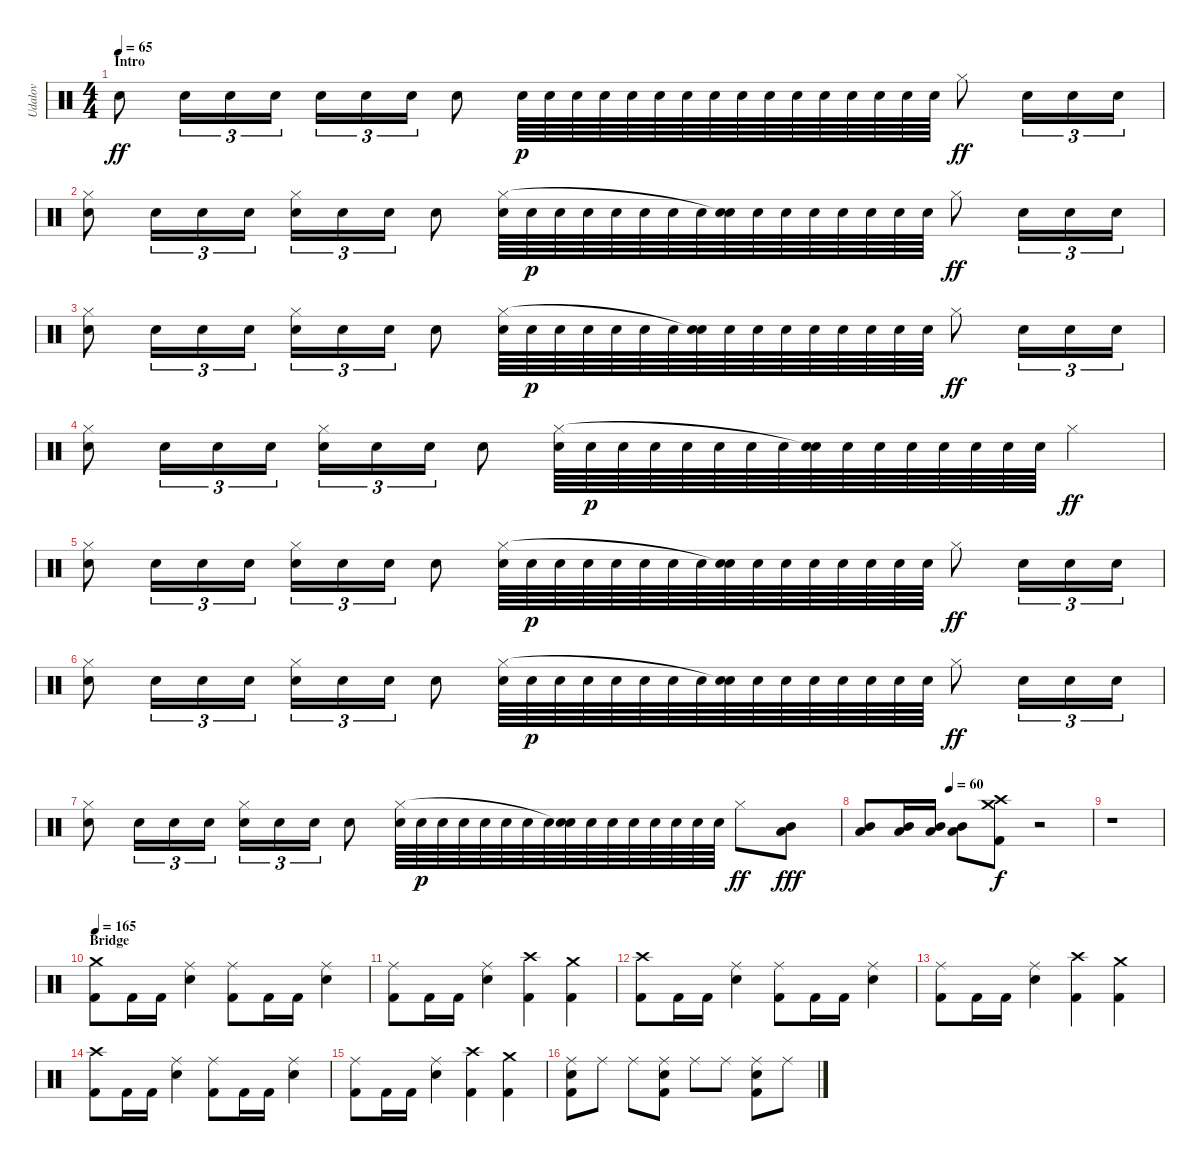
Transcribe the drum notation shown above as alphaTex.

\track ("Udalov" "Udalov") {instrument percussion}
\staff {score}
\articulation defaults
\ts (4 4)
\section ("" "Intro")
\tempo 65
\clef neutral
\ks c "Electric Snare (hit)".8{dy ff} "Electric Snare (hit)".16{tu (3 2)} "Electric Snare (hit)".16{tu (3 2)} "Electric Snare (hit)".16{tu (3 2)} "Electric Snare (hit)".16{tu (3 2)} "Electric Snare (hit)".16{tu (3 2)} "Electric Snare (hit)".16{tu (3 2)} "Electric Snare (hit)".8 "Electric Snare (hit)".64{dy p} "Electric Snare (hit)".64 "Electric Snare (hit)".64 "Electric Snare (hit)".64 "Electric Snare (hit)".64 "Electric Snare (hit)".64 "Electric Snare (hit)".64 "Electric Snare (hit)".64 "Electric Snare (hit)".64 "Electric Snare (hit)".64 "Electric Snare (hit)".64 "Electric Snare (hit)".64 "Electric Snare (hit)".64 "Electric Snare (hit)".64 "Electric Snare (hit)".64 "Electric Snare (hit)".64 "Hi-Hat (closed)".8{dy ff} "Electric Snare (hit)".16{tu (3 2)} "Electric Snare (hit)".16{tu (3 2)} "Electric Snare (hit)".16{tu (3 2)}
|
("Electric Snare (hit)" "Hi-Hat (closed)").8 "Electric Snare (hit)".16{tu (3 2)} "Electric Snare (hit)".16{tu (3 2)} "Electric Snare (hit)".16{tu (3 2)} ("Electric Snare (hit)" "Hi-Hat (closed)").16{tu (3 2)} "Electric Snare (hit)".16{tu (3 2)} "Electric Snare (hit)".16{tu (3 2)} "Electric Snare (hit)".8 ("Electric Snare (hit)" "Hi-Hat (closed)").64 "Electric Snare (hit)".64{dy p} "Electric Snare (hit)".64 "Electric Snare (hit)".64 "Electric Snare (hit)".64 "Electric Snare (hit)".64 "Electric Snare (hit)".64 "Electric Snare (hit)".64 ("Electric Snare (hit)" "Snare (hit)"{t}).64 "Electric Snare (hit)".64 "Electric Snare (hit)".64 "Electric Snare (hit)".64 "Electric Snare (hit)".64 "Electric Snare (hit)".64 "Electric Snare (hit)".64 "Electric Snare (hit)".64 "Hi-Hat (closed)".8{dy ff} "Electric Snare (hit)".16{tu (3 2)} "Electric Snare (hit)".16{tu (3 2)} "Electric Snare (hit)".16{tu (3 2)} |
("Electric Snare (hit)" "Hi-Hat (closed)").8 "Electric Snare (hit)".16{tu (3 2)} "Electric Snare (hit)".16{tu (3 2)} "Electric Snare (hit)".16{tu (3 2)} ("Electric Snare (hit)" "Hi-Hat (closed)").16{tu (3 2)} "Electric Snare (hit)".16{tu (3 2)} "Electric Snare (hit)".16{tu (3 2)} "Electric Snare (hit)".8 ("Electric Snare (hit)" "Hi-Hat (closed)").64 "Electric Snare (hit)".64{dy p} "Electric Snare (hit)".64 "Electric Snare (hit)".64 "Electric Snare (hit)".64 "Electric Snare (hit)".64 "Electric Snare (hit)".64 ("Electric Snare (hit)" "Snare (hit)"{t}).64 "Electric Snare (hit)".64 "Electric Snare (hit)".64 "Electric Snare (hit)".64 "Electric Snare (hit)".64 "Electric Snare (hit)".64 "Electric Snare (hit)".64 "Electric Snare (hit)".64 "Electric Snare (hit)".64 "Hi-Hat (closed)".8{dy ff} "Electric Snare (hit)".16{tu (3 2)} "Electric Snare (hit)".16{tu (3 2)} "Electric Snare (hit)".16{tu (3 2)} |
("Electric Snare (hit)" "Hi-Hat (closed)").8 "Electric Snare (hit)".16{tu (3 2)} "Electric Snare (hit)".16{tu (3 2)} "Electric Snare (hit)".16{tu (3 2)} ("Electric Snare (hit)" "Hi-Hat (closed)").16{tu (3 2)} "Electric Snare (hit)".16{tu (3 2)} "Electric Snare (hit)".16{tu (3 2)} "Electric Snare (hit)".8 ("Electric Snare (hit)" "Hi-Hat (closed)").64 "Electric Snare (hit)".64{dy p} "Electric Snare (hit)".64 "Electric Snare (hit)".64 "Electric Snare (hit)".64 "Electric Snare (hit)".64 "Electric Snare (hit)".64 "Electric Snare (hit)".64 ("Electric Snare (hit)" "Snare (hit)"{t}).64 "Electric Snare (hit)".64 "Electric Snare (hit)".64 "Electric Snare (hit)".64 "Electric Snare (hit)".64 "Electric Snare (hit)".64 "Electric Snare (hit)".64 "Electric Snare (hit)".64 "Hi-Hat (closed)".4{dy ff} |
("Electric Snare (hit)" "Hi-Hat (closed)").8 "Electric Snare (hit)".16{tu (3 2)} "Electric Snare (hit)".16{tu (3 2)} "Electric Snare (hit)".16{tu (3 2)} ("Electric Snare (hit)" "Hi-Hat (closed)").16{tu (3 2)} "Electric Snare (hit)".16{tu (3 2)} "Electric Snare (hit)".16{tu (3 2)} "Electric Snare (hit)".8 ("Electric Snare (hit)" "Hi-Hat (closed)").64 "Electric Snare (hit)".64{dy p} "Electric Snare (hit)".64 "Electric Snare (hit)".64 "Electric Snare (hit)".64 "Electric Snare (hit)".64 "Electric Snare (hit)".64 "Electric Snare (hit)".64 ("Electric Snare (hit)" "Snare (hit)"{t}).64 "Electric Snare (hit)".64 "Electric Snare (hit)".64 "Electric Snare (hit)".64 "Electric Snare (hit)".64 "Electric Snare (hit)".64 "Electric Snare (hit)".64 "Electric Snare (hit)".64 "Hi-Hat (closed)".8{dy ff} "Electric Snare (hit)".16{tu (3 2)} "Electric Snare (hit)".16{tu (3 2)} "Electric Snare (hit)".16{tu (3 2)} |
("Electric Snare (hit)" "Hi-Hat (closed)").8 "Electric Snare (hit)".16{tu (3 2)} "Electric Snare (hit)".16{tu (3 2)} "Electric Snare (hit)".16{tu (3 2)} ("Electric Snare (hit)" "Hi-Hat (closed)").16{tu (3 2)} "Electric Snare (hit)".16{tu (3 2)} "Electric Snare (hit)".16{tu (3 2)} "Electric Snare (hit)".8 ("Electric Snare (hit)" "Hi-Hat (closed)").64 "Electric Snare (hit)".64{dy p} "Electric Snare (hit)".64 "Electric Snare (hit)".64 "Electric Snare (hit)".64 "Electric Snare (hit)".64 "Electric Snare (hit)".64 "Electric Snare (hit)".64 ("Electric Snare (hit)" "Snare (hit)"{t}).64 "Electric Snare (hit)".64 "Electric Snare (hit)".64 "Electric Snare (hit)".64 "Electric Snare (hit)".64 "Electric Snare (hit)".64 "Electric Snare (hit)".64 "Electric Snare (hit)".64 "Hi-Hat (closed)".8{dy ff} "Electric Snare (hit)".16{tu (3 2)} "Electric Snare (hit)".16{tu (3 2)} "Electric Snare (hit)".16{tu (3 2)} |
("Electric Snare (hit)" "Hi-Hat (closed)").8 "Electric Snare (hit)".16{tu (3 2)} "Electric Snare (hit)".16{tu (3 2)} "Electric Snare (hit)".16{tu (3 2)} ("Electric Snare (hit)" "Hi-Hat (closed)").16{tu (3 2)} "Electric Snare (hit)".16{tu (3 2)} "Electric Snare (hit)".16{tu (3 2)} "Electric Snare (hit)".8 ("Electric Snare (hit)" "Hi-Hat (closed)").64 "Electric Snare (hit)".64{dy p} "Electric Snare (hit)".64 "Electric Snare (hit)".64 "Electric Snare (hit)".64 "Electric Snare (hit)".64 "Electric Snare (hit)".64 "Electric Snare (hit)".64 ("Electric Snare (hit)" "Snare (hit)"{t}).64 "Electric Snare (hit)".64 "Electric Snare (hit)".64 "Electric Snare (hit)".64 "Electric Snare (hit)".64 "Electric Snare (hit)".64 "Electric Snare (hit)".64 "Electric Snare (hit)".64 "Hi-Hat (closed)".8{dy ff} ("Mid Tom (hit)" "Low Tom (hit)").8{dy fff} |
\tempo (60 0.375)
("Mid Tom (hit)" "Low Tom (hit)").8 ("Mid Tom (hit)" "Low Tom (hit)").16 ("Low Tom (hit)" "Mid Tom (hit)").16 ("Mid Tom (hit)" "Low Tom (hit)").8 ("Kick (hit) 2" "Crash high (hit)" "Crash medium (hit)").8{dy f} r.2 |
r.1 |
\section ("" "Bridge")
\tempo 165
("Kick (hit) 2" "Crash medium (hit)").8 "Kick (hit) 2".16 "Kick (hit) 2".16 ("Snare (hit) 2" "Ride (middle)").4 ("Kick (hit) 2" "Ride (middle)").8 "Kick (hit) 2".16 "Kick (hit) 2".16 ("Snare (hit) 2" "Ride (middle)").4 |
("Kick (hit) 2" "Ride (middle)").8 "Kick (hit) 2".16 "Kick (hit) 2".16 ("Snare (hit) 2" "Ride (middle)").4 ("Kick (hit) 2" "Crash high (hit)").4 ("Kick (hit) 2" "Crash medium (hit)").4 |
("Kick (hit) 2" "Crash high (hit)").8 "Kick (hit) 2".16 "Kick (hit) 2".16 ("Snare (hit) 2" "Ride (middle)").4 ("Kick (hit) 2" "Ride (middle)").8 "Kick (hit) 2".16 "Kick (hit) 2".16 ("Snare (hit) 2" "Ride (middle)").4 |
("Kick (hit) 2" "Ride (middle)").8 "Kick (hit) 2".16 "Kick (hit) 2".16 ("Snare (hit) 2" "Ride (middle)").4 ("Kick (hit) 2" "Crash high (hit)").4 ("Kick (hit) 2" "Crash medium (hit)").4 |
("Kick (hit) 2" "Crash high (hit)").8 "Kick (hit) 2".16 "Kick (hit) 2".16 ("Snare (hit) 2" "Ride (middle)").4 ("Kick (hit) 2" "Ride (middle)").8 "Kick (hit) 2".16 "Kick (hit) 2".16 ("Snare (hit) 2" "Ride (middle)").4 |
("Kick (hit) 2" "Ride (middle)").8 "Kick (hit) 2".16 "Kick (hit) 2".16 ("Snare (hit) 2" "Ride (middle)").4 ("Kick (hit) 2" "Crash high (hit)").4 ("Kick (hit) 2" "Crash medium (hit)").4 |
("Electric Snare (hit)" "Ride (middle)" "Kick (hit) 2").8 "Ride (middle)".8 "Ride (middle)".8 ("Electric Snare (hit)" "Ride (middle)" "Kick (hit) 2").8 "Ride (middle)".8 "Ride (middle)".8 ("Electric Snare (hit)" "Ride (middle)" "Kick (hit) 2").8 "Ride (middle)".8
